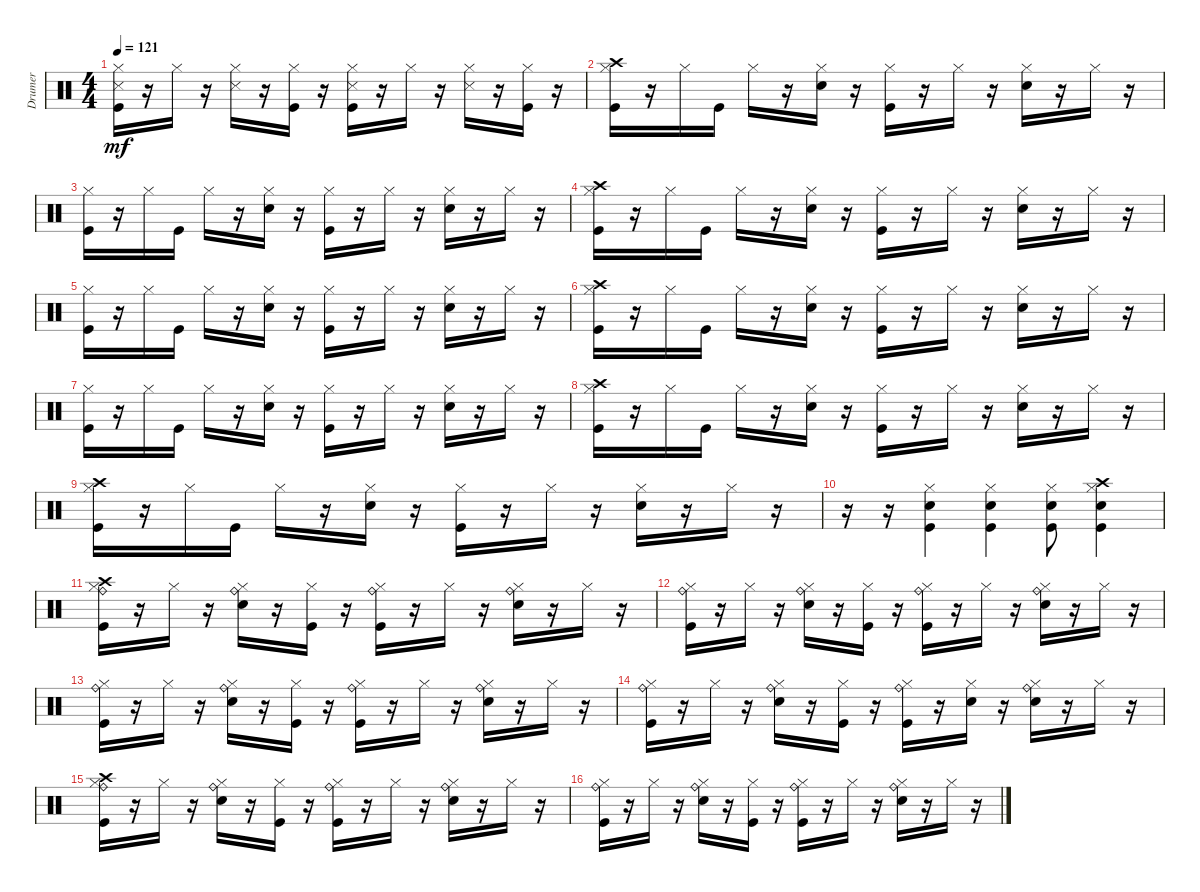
\track ("Drumer" "Drumer") {instrument percussion}
\staff {score}
\articulation defaults
\ts (4 4)
\tempo 121
\clef neutral
\ks c
("Hi-Hat (closed)" "Snare (side stick) 3" "Kick (hit)").16{dy mf} r.16 "Hi-Hat (closed)".16 r.16 ("Hi-Hat (closed)" "Snare (side stick) 3").16 r.16 ("Hi-Hat (closed)" "Kick (hit)").16 r.16 ("Hi-Hat (closed)" "Snare (side stick) 3" "Kick (hit)").16 r.16 "Hi-Hat (closed)".16 r.16 ("Hi-Hat (closed)" "Snare (side stick) 3").16 r.16 ("Hi-Hat (closed)" "Kick (hit)").16 r.16 |
("Hi-Hat (closed)" "Kick (hit)" "Crash high (hit)").16 r.16 "Hi-Hat (closed)".16 "Kick (hit)".16 "Hi-Hat (closed)".16 r.16 ("Hi-Hat (closed)" "Snare (hit) 2").16 r.16 ("Hi-Hat (closed)" "Kick (hit)").16 r.16 "Hi-Hat (closed)".16 r.16 ("Hi-Hat (closed)" "Snare (hit) 2").16 r.16 "Hi-Hat (closed)".16 r.16 |
("Hi-Hat (closed)" "Kick (hit)").16 r.16 "Hi-Hat (closed)".16 "Kick (hit)".16 "Hi-Hat (closed)".16 r.16 ("Hi-Hat (closed)" "Snare (hit) 2").16 r.16 ("Hi-Hat (closed)" "Kick (hit)").16 r.16 "Hi-Hat (closed)".16 r.16 ("Hi-Hat (closed)" "Snare (hit) 2").16 r.16 "Hi-Hat (closed)".16 r.16 |
("Hi-Hat (closed)" "Kick (hit)" "Crash high (hit)").16 r.16 "Hi-Hat (closed)".16 "Kick (hit)".16 "Hi-Hat (closed)".16 r.16 ("Hi-Hat (closed)" "Snare (hit) 2").16 r.16 ("Hi-Hat (closed)" "Kick (hit)").16 r.16 "Hi-Hat (closed)".16 r.16 ("Hi-Hat (closed)" "Snare (hit) 2").16 r.16 "Hi-Hat (closed)".16 r.16 |
("Hi-Hat (closed)" "Kick (hit)").16 r.16 "Hi-Hat (closed)".16 "Kick (hit)".16 "Hi-Hat (closed)".16 r.16 ("Hi-Hat (closed)" "Snare (hit) 2").16 r.16 ("Hi-Hat (closed)" "Kick (hit)").16 r.16 "Hi-Hat (closed)".16 r.16 ("Hi-Hat (closed)" "Snare (hit) 2").16 r.16 "Hi-Hat (closed)".16 r.16 |
("Hi-Hat (closed)" "Kick (hit)" "Crash high (hit)").16 r.16 "Hi-Hat (closed)".16 "Kick (hit)".16 "Hi-Hat (closed)".16 r.16 ("Hi-Hat (closed)" "Snare (hit) 2").16 r.16 ("Hi-Hat (closed)" "Kick (hit)").16 r.16 "Hi-Hat (closed)".16 r.16 ("Hi-Hat (closed)" "Snare (hit) 2").16 r.16 "Hi-Hat (closed)".16 r.16 |
("Hi-Hat (closed)" "Kick (hit)").16 r.16 "Hi-Hat (closed)".16 "Kick (hit)".16 "Hi-Hat (closed)".16 r.16 ("Hi-Hat (closed)" "Snare (hit) 2").16 r.16 ("Hi-Hat (closed)" "Kick (hit)").16 r.16 "Hi-Hat (closed)".16 r.16 ("Hi-Hat (closed)" "Snare (hit) 2").16 r.16 "Hi-Hat (closed)".16 r.16 |
("Hi-Hat (closed)" "Kick (hit)" "Crash high (hit)").16 r.16 "Hi-Hat (closed)".16 "Kick (hit)".16 "Hi-Hat (closed)".16 r.16 ("Hi-Hat (closed)" "Snare (hit) 2").16 r.16 ("Hi-Hat (closed)" "Kick (hit)").16 r.16 "Hi-Hat (closed)".16 r.16 ("Hi-Hat (closed)" "Snare (hit) 2").16 r.16 "Hi-Hat (closed)".16 r.16 |
("Hi-Hat (closed)" "Kick (hit)" "Crash high (hit)").16 r.16 "Hi-Hat (closed)".16 "Kick (hit)".16 "Hi-Hat (closed)".16 r.16 ("Hi-Hat (closed)" "Snare (hit) 2").16 r.16 ("Hi-Hat (closed)" "Kick (hit)").16 r.16 "Hi-Hat (closed)".16 r.16 ("Hi-Hat (closed)" "Snare (hit) 2").16 r.16 "Hi-Hat (closed)".16 r.16 |
r.16 r.16 ("Snare (hit) 2" "Kick (hit)" "Hi-Hat (closed)").4 ("Snare (hit) 2" "Kick (hit)" "Hi-Hat (closed)").4 ("Snare (hit) 2" "Kick (hit)" "Hi-Hat (closed)").8 ("Snare (hit) 2" "Kick (hit)" "Crash high (hit)" "Hi-Hat (closed)").4 |
("Hi-Hat (closed)" "Ride (bell)" "Crash high (hit)" "Kick (hit)").16 r.16 "Hi-Hat (closed)".16 r.16 ("Hi-Hat (closed)" "Ride (bell)" "Snare (hit) 2").16 r.16 ("Hi-Hat (closed)" "Kick (hit)").16 r.16 ("Hi-Hat (closed)" "Ride (bell)" "Kick (hit)").16 r.16 "Hi-Hat (closed)".16 r.16 ("Hi-Hat (closed)" "Ride (bell)" "Snare (hit) 2").16 r.16 "Hi-Hat (closed)".16 r.16 |
("Hi-Hat (closed)" "Ride (bell)" "Kick (hit)").16 r.16 "Hi-Hat (closed)".16 r.16 ("Hi-Hat (closed)" "Ride (bell)" "Snare (hit) 2").16 r.16 ("Hi-Hat (closed)" "Kick (hit)").16 r.16 ("Hi-Hat (closed)" "Ride (bell)" "Kick (hit)").16 r.16 "Hi-Hat (closed)".16 r.16 ("Hi-Hat (closed)" "Ride (bell)" "Snare (hit) 2").16 r.16 "Hi-Hat (closed)".16 r.16 |
("Hi-Hat (closed)" "Ride (bell)" "Kick (hit)").16 r.16 "Hi-Hat (closed)".16 r.16 ("Hi-Hat (closed)" "Ride (bell)" "Snare (hit) 2").16 r.16 ("Hi-Hat (closed)" "Kick (hit)").16 r.16 ("Hi-Hat (closed)" "Ride (bell)" "Kick (hit)").16 r.16 "Hi-Hat (closed)".16 r.16 ("Hi-Hat (closed)" "Ride (bell)" "Snare (hit) 2").16 r.16 "Hi-Hat (closed)".16 r.16 |
("Hi-Hat (closed)" "Ride (bell)" "Kick (hit)").16 r.16 "Hi-Hat (closed)".16 r.16 ("Hi-Hat (closed)" "Ride (bell)" "Snare (hit) 2").16 r.16 ("Hi-Hat (closed)" "Kick (hit)").16 r.16 ("Hi-Hat (closed)" "Ride (bell)" "Kick (hit)").16 r.16 ("Hi-Hat (closed)" "Snare (hit) 2").16 r.16 ("Hi-Hat (closed)" "Ride (bell)" "Snare (hit) 2").16 r.16 "Hi-Hat (closed)".16 r.16 |
("Hi-Hat (closed)" "Ride (bell)" "Kick (hit)" "Crash high (hit)").16 r.16 "Hi-Hat (closed)".16 r.16 ("Hi-Hat (closed)" "Ride (bell)" "Snare (hit) 2").16 r.16 ("Hi-Hat (closed)" "Kick (hit)").16 r.16 ("Hi-Hat (closed)" "Ride (bell)" "Kick (hit)").16 r.16 "Hi-Hat (closed)".16 r.16 ("Hi-Hat (closed)" "Ride (bell)" "Snare (hit) 2").16 r.16 "Hi-Hat (closed)".16 r.16 |
("Hi-Hat (closed)" "Ride (bell)" "Kick (hit)").16 r.16 "Hi-Hat (closed)".16 r.16 ("Hi-Hat (closed)" "Ride (bell)" "Snare (hit) 2").16 r.16 ("Hi-Hat (closed)" "Kick (hit)").16 r.16 ("Hi-Hat (closed)" "Ride (bell)" "Kick (hit)").16 r.16 "Hi-Hat (closed)".16 r.16 ("Hi-Hat (closed)" "Ride (bell)" "Snare (hit) 2").16 r.16 "Hi-Hat (closed)".16 r.16
